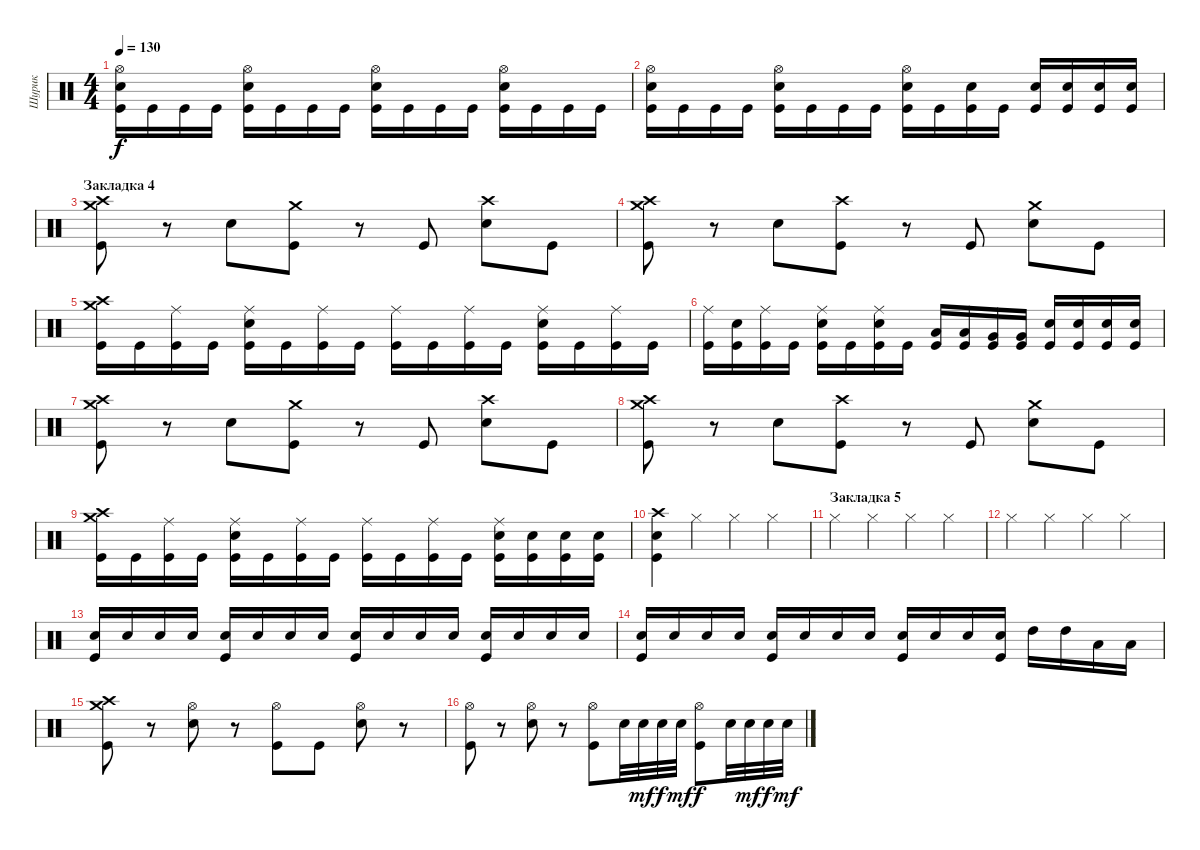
\track ("Шурик" "Шурик") {instrument percussion}
\staff {score}
\articulation defaults
\ts (4 4)
\tempo 130
\clef neutral
\ks c
("Hi-Hat (open)" "Electric Snare (hit)" "Kick (hit)").16{dy f} "Kick (hit)".16 "Kick (hit)".16 "Kick (hit)".16 ("Hi-Hat (open)" "Electric Snare (hit)" "Kick (hit)").16 "Kick (hit)".16 "Kick (hit)".16 "Kick (hit)".16 ("Hi-Hat (open)" "Electric Snare (hit)" "Kick (hit)").16 "Kick (hit)".16 "Kick (hit)".16 "Kick (hit)".16 ("Hi-Hat (open)" "Electric Snare (hit)" "Kick (hit)").16 "Kick (hit)".16 "Kick (hit)".16 "Kick (hit)".16 |
("Hi-Hat (open)" "Electric Snare (hit)" "Kick (hit)").16 "Kick (hit)".16 "Kick (hit)".16 "Kick (hit)".16 ("Hi-Hat (open)" "Electric Snare (hit)" "Kick (hit)").16 "Kick (hit)".16 "Kick (hit)".16 "Kick (hit)".16 ("Hi-Hat (open)" "Electric Snare (hit)" "Kick (hit)").16 "Kick (hit)".16 ("Electric Snare (hit)" "Kick (hit)").16 "Kick (hit)".16 ("Electric Snare (hit)" "Kick (hit)").16 ("Electric Snare (hit)" "Kick (hit)").16 ("Electric Snare (hit)" "Kick (hit)").16 ("Electric Snare (hit)" "Kick (hit)").16 |
\section ("" "Закладка 4")
("Crash medium (hit)" "Crash high (hit)" "Kick (hit)").8 r.8 "Electric Snare (hit)".8 ("Crash medium (hit)" "Kick (hit)").8 r.8 "Kick (hit)".8 ("Crash high (hit)" "Electric Snare (hit)").8 "Kick (hit)".8 |
("Crash medium (hit)" "Crash high (hit)" "Kick (hit)").8 r.8 "Electric Snare (hit)".8 ("Crash high (hit)" "Kick (hit)").8 r.8 "Kick (hit)".8 ("Crash medium (hit)" "Electric Snare (hit)").8 "Kick (hit)".8 |
("Crash medium (hit)" "Crash high (hit)" "Kick (hit)").16 "Kick (hit)".16 ("Ride (middle)" "Kick (hit)").16 "Kick (hit)".16 ("Ride (middle)" "Electric Snare (hit)" "Kick (hit)").16 "Kick (hit)".16 ("Ride (middle)" "Kick (hit)").16 "Kick (hit)".16 ("Ride (middle)" "Kick (hit)").16 "Kick (hit)".16 ("Ride (middle)" "Kick (hit)").16 "Kick (hit)".16 ("Ride (middle)" "Electric Snare (hit)" "Kick (hit)").16 "Kick (hit)".16 ("Ride (middle)" "Kick (hit)").16 "Kick (hit)".16 |
("Ride (middle)" "Kick (hit)").16 ("Electric Snare (hit)" "Kick (hit)").16 ("Ride (middle)" "Kick (hit)").16 "Kick (hit)".16 ("Ride (middle)" "Electric Snare (hit)" "Kick (hit)").16 "Kick (hit)".16 ("Ride (middle)" "Electric Snare (hit)" "Kick (hit)").16 "Kick (hit)".16 ("Low Tom (hit)" "Kick (hit)").16 ("Low Tom (hit)" "Kick (hit)").16 ("Very Low Tom (hit)" "Kick (hit)").16 ("Very Low Tom (hit)" "Kick (hit)").16 ("Electric Snare (hit)" "Kick (hit)").16 ("Electric Snare (hit)" "Kick (hit)").16 ("Electric Snare (hit)" "Kick (hit)").16 ("Electric Snare (hit)" "Kick (hit)").16 |
("Crash medium (hit)" "Crash high (hit)" "Kick (hit)").8 r.8 "Electric Snare (hit)".8 ("Crash medium (hit)" "Kick (hit)").8 r.8 "Kick (hit)".8 ("Crash high (hit)" "Electric Snare (hit)").8 "Kick (hit)".8 |
("Crash medium (hit)" "Crash high (hit)" "Kick (hit)").8 r.8 "Electric Snare (hit)".8 ("Crash high (hit)" "Kick (hit)").8 r.8 "Kick (hit)".8 ("Crash medium (hit)" "Electric Snare (hit)").8 "Kick (hit)".8 |
("Crash medium (hit)" "Crash high (hit)" "Kick (hit)").16 "Kick (hit)".16 ("Ride (middle)" "Kick (hit)").16 "Kick (hit)".16 ("Ride (middle)" "Electric Snare (hit)" "Kick (hit)").16 "Kick (hit)".16 ("Ride (middle)" "Kick (hit)").16 "Kick (hit)".16 ("Ride (middle)" "Kick (hit)").16 "Kick (hit)".16 ("Ride (middle)" "Kick (hit)").16 "Kick (hit)".16 ("Ride (middle)" "Electric Snare (hit)" "Kick (hit)").16 ("Electric Snare (hit)" "Kick (hit)").16 ("Electric Snare (hit)" "Kick (hit)").16 ("Electric Snare (hit)" "Kick (hit)").16 |
("Crash high (hit)" "Electric Snare (hit)" "Kick (hit)").4 "Hi-Hat (closed)".4 "Hi-Hat (closed)".4 "Hi-Hat (closed)".4 |
\section ("" "Закладка 5")
"Hi-Hat (closed)".4 "Hi-Hat (closed)".4 "Hi-Hat (closed)".4 "Hi-Hat (closed)".4 |
"Hi-Hat (closed)".4 "Hi-Hat (closed)".4 "Hi-Hat (closed)".4 "Hi-Hat (closed)".4 |
("Electric Snare (hit)" "Kick (hit)").16 "Electric Snare (hit)".16 "Electric Snare (hit)".16 "Electric Snare (hit)".16 ("Electric Snare (hit)" "Kick (hit)").16 "Electric Snare (hit)".16 "Electric Snare (hit)".16 "Electric Snare (hit)".16 ("Electric Snare (hit)" "Kick (hit)").16 "Electric Snare (hit)".16 "Electric Snare (hit)".16 "Electric Snare (hit)".16 ("Electric Snare (hit)" "Kick (hit)").16 "Electric Snare (hit)".16 "Electric Snare (hit)".16 "Electric Snare (hit)".16 |
("Electric Snare (hit)" "Kick (hit)").16 "Electric Snare (hit)".16 "Electric Snare (hit)".16 "Electric Snare (hit)".16 ("Electric Snare (hit)" "Kick (hit)").16 "Electric Snare (hit)".16 "Electric Snare (hit)".16 "Electric Snare (hit)".16 ("Electric Snare (hit)" "Kick (hit)").16 "Electric Snare (hit)".16 "Electric Snare (hit)".16 ("Electric Snare (hit)" "Kick (hit)").16 "High Tom (hit)".16 "High Tom (hit)".16 "Low Tom (hit)".16 "Low Tom (hit)".16 |
("Crash medium (hit)" "Crash high (hit)" "Kick (hit)").8 r.8 ("Hi-Hat (open)" "Electric Snare (hit)").8 r.8 ("Hi-Hat (open)" "Kick (hit)").8 "Kick (hit)".8 ("Hi-Hat (open)" "Electric Snare (hit)").8 r.8 |
("Hi-Hat (open)" "Kick (hit)").8 r.8 ("Hi-Hat (open)" "Electric Snare (hit)").8 r.8 ("Hi-Hat (open)" "Kick (hit)").8 "Electric Snare (hit)".32 "Electric Snare (hit)".32{dy mf} "Electric Snare (hit)".32{dy f} "Electric Snare (hit)".32{dy mf} ("Hi-Hat (open)" "Kick (hit)").8{dy f} "Electric Snare (hit)".32 "Electric Snare (hit)".32{dy mf} "Electric Snare (hit)".32{dy f} "Electric Snare (hit)".32{dy mf}
